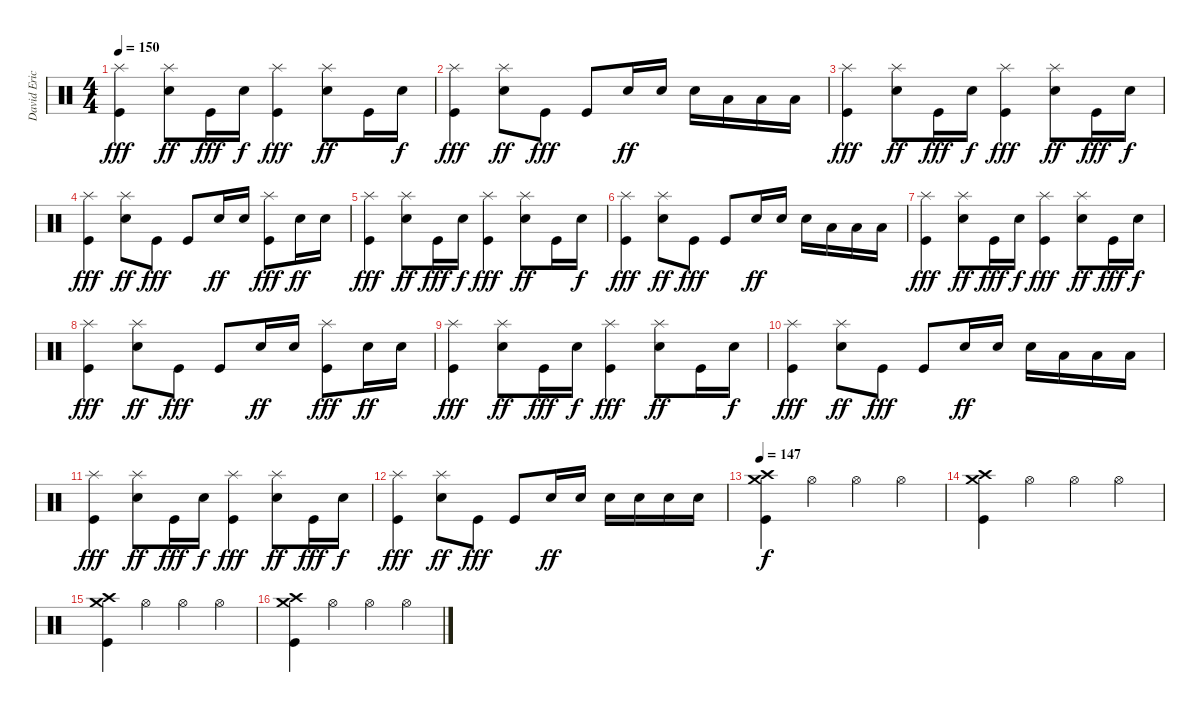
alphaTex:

\track ("David Eric Grohl" "David Eric") {instrument percussion}
\staff {score}
\articulation defaults
\ts (4 4)
\tempo 150
\clef neutral
\ks c
("Splash (hit)" "Kick (hit)").4{dy fff} ("Splash (hit)" "Snare (hit) 2").8{dy ff} "Kick (hit)".16{dy fff} "Snare (hit) 2".16{dy f} ("Splash (hit)" "Kick (hit)").4{dy fff} ("Splash (hit)" "Snare (hit) 2").8{dy ff} "Kick (hit)".16 "Snare (hit) 2".16{dy f} |
("Splash (hit)" "Kick (hit)").4{dy fff} ("Splash (hit)" "Snare (hit) 2").8{dy ff} "Kick (hit)".8{dy fff} "Kick (hit)".8 "Snare (hit) 2".16{dy ff} "Snare (hit) 2".16 "Snare (hit) 2".16 "Low Tom (hit)".16 "Low Tom (hit)".16 "Low Tom (hit)".16 |
("Splash (hit)" "Kick (hit)").4{dy fff} ("Splash (hit)" "Snare (hit) 2").8{dy ff} "Kick (hit)".16{dy fff} "Snare (hit) 2".16{dy f} ("Splash (hit)" "Kick (hit)").4{dy fff} ("Splash (hit)" "Snare (hit) 2").8{dy ff} "Kick (hit)".16{dy fff} "Snare (hit) 2".16{dy f} |
("Splash (hit)" "Kick (hit)").4{dy fff} ("Splash (hit)" "Snare (hit) 2").8{dy ff} "Kick (hit)".8{dy fff} "Kick (hit)".8 "Snare (hit) 2".16{dy ff} "Snare (hit) 2".16 ("Splash (hit)" "Kick (hit)").8{dy fff} "Snare (hit) 2".16{dy ff} "Snare (hit) 2".16 |
("Splash (hit)" "Kick (hit)").4{dy fff} ("Splash (hit)" "Snare (hit) 2").8{dy ff} "Kick (hit)".16{dy fff} "Snare (hit) 2".16{dy f} ("Splash (hit)" "Kick (hit)").4{dy fff} ("Splash (hit)" "Snare (hit) 2").8{dy ff} "Kick (hit)".16 "Snare (hit) 2".16{dy f} |
("Splash (hit)" "Kick (hit)").4{dy fff} ("Splash (hit)" "Snare (hit) 2").8{dy ff} "Kick (hit)".8{dy fff} "Kick (hit)".8 "Snare (hit) 2".16{dy ff} "Snare (hit) 2".16 "Snare (hit) 2".16 "Low Tom (hit)".16 "Low Tom (hit)".16 "Low Tom (hit)".16 |
("Splash (hit)" "Kick (hit)").4{dy fff} ("Splash (hit)" "Snare (hit) 2").8{dy ff} "Kick (hit)".16{dy fff} "Snare (hit) 2".16{dy f} ("Splash (hit)" "Kick (hit)").4{dy fff} ("Splash (hit)" "Snare (hit) 2").8{dy ff} "Kick (hit)".16{dy fff} "Snare (hit) 2".16{dy f} |
("Splash (hit)" "Kick (hit)").4{dy fff} ("Splash (hit)" "Snare (hit) 2").8{dy ff} "Kick (hit)".8{dy fff} "Kick (hit)".8 "Snare (hit) 2".16{dy ff} "Snare (hit) 2".16 ("Splash (hit)" "Kick (hit)").8{dy fff} "Snare (hit) 2".16{dy ff} "Snare (hit) 2".16 |
("Splash (hit)" "Kick (hit)").4{dy fff} ("Splash (hit)" "Snare (hit) 2").8{dy ff} "Kick (hit)".16{dy fff} "Snare (hit) 2".16{dy f} ("Splash (hit)" "Kick (hit)").4{dy fff} ("Splash (hit)" "Snare (hit) 2").8{dy ff} "Kick (hit)".16 "Snare (hit) 2".16{dy f} |
("Splash (hit)" "Kick (hit)").4{dy fff} ("Splash (hit)" "Snare (hit) 2").8{dy ff} "Kick (hit)".8{dy fff} "Kick (hit)".8 "Snare (hit) 2".16{dy ff} "Snare (hit) 2".16 "Snare (hit) 2".16 "Low Tom (hit)".16 "Low Tom (hit)".16 "Low Tom (hit)".16 |
("Splash (hit)" "Kick (hit)").4{dy fff} ("Splash (hit)" "Snare (hit) 2").8{dy ff} "Kick (hit)".16{dy fff} "Snare (hit) 2".16{dy f} ("Splash (hit)" "Kick (hit)").4{dy fff} ("Splash (hit)" "Snare (hit) 2").8{dy ff} "Kick (hit)".16{dy fff} "Snare (hit) 2".16{dy f} |
("Splash (hit)" "Kick (hit)").4{dy fff} ("Splash (hit)" "Snare (hit) 2").8{dy ff} "Kick (hit)".8{dy fff} "Kick (hit)".8 "Snare (hit) 2".16{dy ff} "Snare (hit) 2".16 "Snare (hit) 2".16 "Snare (hit) 2".16 "Snare (hit) 2".16 "Snare (hit) 2".16 |
\tempo 147
("Crash medium (hit)" "Crash high (hit)" "Kick (hit)").4{dy f} "Hi-Hat (open)".4 "Hi-Hat (open)".4 "Hi-Hat (open)".4 |
("Crash medium (hit)" "Crash high (hit)" "Kick (hit)").4 "Hi-Hat (open)".4 "Hi-Hat (open)".4 "Hi-Hat (open)".4 |
("Crash medium (hit)" "Crash high (hit)" "Kick (hit)").4 "Hi-Hat (open)".4 "Hi-Hat (open)".4 "Hi-Hat (open)".4 |
("Crash medium (hit)" "Crash high (hit)" "Kick (hit)").4 "Hi-Hat (open)".4 "Hi-Hat (open)".4 "Hi-Hat (open)".4
